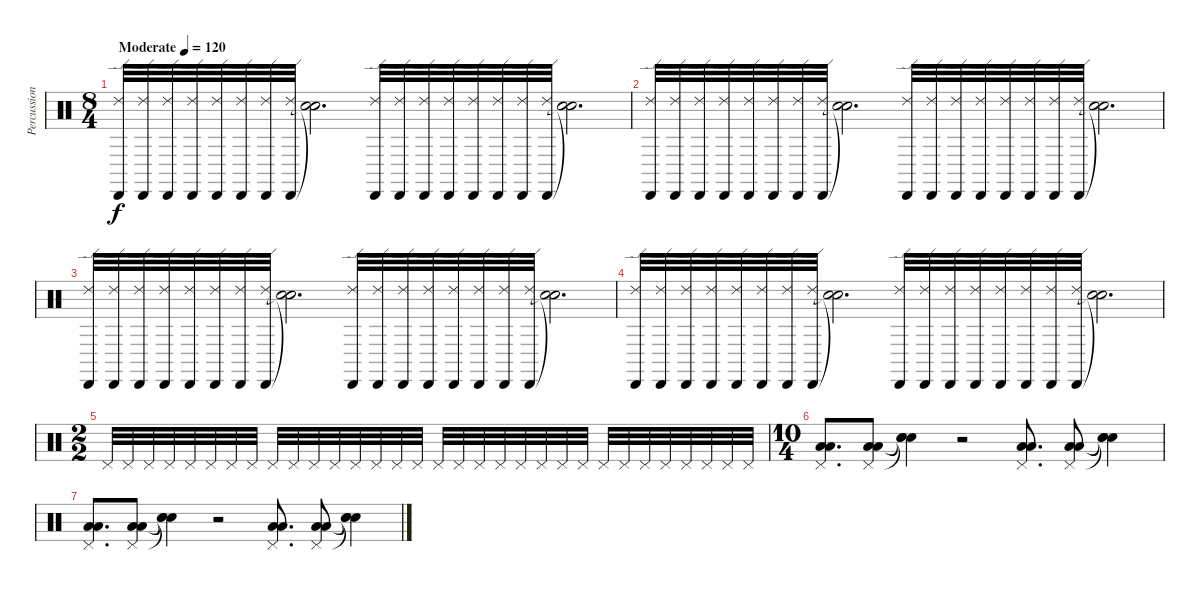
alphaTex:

\track ("Percussion" "Percussion") {instrument percussion}
\staff {score}
\articulation defaults
\ts (8 4)
\tempo (120 "Moderate")
\clef neutral
\ks c
("Cabasa (hit)" "Ride (edge) 2").32{dy f} ("Cabasa (hit)" "Ride (edge) 2").32 ("Cabasa (hit)" "Ride (edge) 2").32 ("Cabasa (hit)" "Ride (edge) 2").32 ("Cabasa (hit)" "Ride (edge) 2").32 ("Cabasa (hit)" "Ride (edge) 2").32 ("Cabasa (hit)" "Ride (edge) 2").32 ("Cabasa (hit)" "Ride (edge) 2").32 ("Snare (hit)"{t} "Snare (hit)"{t}).2{d} ("Cabasa (hit)" "Ride (edge) 2").32 ("Cabasa (hit)" "Ride (edge) 2").32 ("Cabasa (hit)" "Ride (edge) 2").32 ("Cabasa (hit)" "Ride (edge) 2").32 ("Cabasa (hit)" "Ride (edge) 2").32 ("Cabasa (hit)" "Ride (edge) 2").32 ("Cabasa (hit)" "Ride (edge) 2").32 ("Cabasa (hit)" "Ride (edge) 2").32 ("Snare (hit)"{t} "Snare (hit)"{t}).2{d} |
("Cabasa (hit)" "Ride (edge) 2").32 ("Cabasa (hit)" "Ride (edge) 2").32 ("Cabasa (hit)" "Ride (edge) 2").32 ("Cabasa (hit)" "Ride (edge) 2").32 ("Cabasa (hit)" "Ride (edge) 2").32 ("Cabasa (hit)" "Ride (edge) 2").32 ("Cabasa (hit)" "Ride (edge) 2").32 ("Cabasa (hit)" "Ride (edge) 2").32 ("Snare (hit)"{t} "Snare (hit)"{t}).2{d} ("Cabasa (hit)" "Ride (edge) 2").32 ("Cabasa (hit)" "Ride (edge) 2").32 ("Cabasa (hit)" "Ride (edge) 2").32 ("Cabasa (hit)" "Ride (edge) 2").32 ("Cabasa (hit)" "Ride (edge) 2").32 ("Cabasa (hit)" "Ride (edge) 2").32 ("Cabasa (hit)" "Ride (edge) 2").32 ("Cabasa (hit)" "Ride (edge) 2").32 ("Snare (hit)"{t} "Snare (hit)"{t}).2{d} |
("Cabasa (hit)" "Ride (edge) 2").32 ("Cabasa (hit)" "Ride (edge) 2").32 ("Cabasa (hit)" "Ride (edge) 2").32 ("Cabasa (hit)" "Ride (edge) 2").32 ("Cabasa (hit)" "Ride (edge) 2").32 ("Cabasa (hit)" "Ride (edge) 2").32 ("Cabasa (hit)" "Ride (edge) 2").32 ("Cabasa (hit)" "Ride (edge) 2").32 ("Snare (hit)"{t} "Snare (hit)"{t}).2{d} ("Cabasa (hit)" "Ride (edge) 2").32 ("Cabasa (hit)" "Ride (edge) 2").32 ("Cabasa (hit)" "Ride (edge) 2").32 ("Cabasa (hit)" "Ride (edge) 2").32 ("Cabasa (hit)" "Ride (edge) 2").32 ("Cabasa (hit)" "Ride (edge) 2").32 ("Cabasa (hit)" "Ride (edge) 2").32 ("Cabasa (hit)" "Ride (edge) 2").32 ("Snare (hit)"{t} "Snare (hit)"{t}).2{d} |
("Cabasa (hit)" "Ride (edge) 2").32 ("Cabasa (hit)" "Ride (edge) 2").32 ("Cabasa (hit)" "Ride (edge) 2").32 ("Cabasa (hit)" "Ride (edge) 2").32 ("Cabasa (hit)" "Ride (edge) 2").32 ("Cabasa (hit)" "Ride (edge) 2").32 ("Cabasa (hit)" "Ride (edge) 2").32 ("Cabasa (hit)" "Ride (edge) 2").32 ("Snare (hit)"{t} "Snare (hit)"{t}).2{d} ("Cabasa (hit)" "Ride (edge) 2").32 ("Cabasa (hit)" "Ride (edge) 2").32 ("Cabasa (hit)" "Ride (edge) 2").32 ("Cabasa (hit)" "Ride (edge) 2").32 ("Cabasa (hit)" "Ride (edge) 2").32 ("Cabasa (hit)" "Ride (edge) 2").32 ("Cabasa (hit)" "Ride (edge) 2").32 ("Cabasa (hit)" "Ride (edge) 2").32 ("Snare (hit)"{t} "Snare (hit)"{t}).2{d} |
\ts (2 2)
"Pedal Hi-Hat (hit)".32{volume 16} "Pedal Hi-Hat (hit)".32 "Pedal Hi-Hat (hit)".32 "Pedal Hi-Hat (hit)".32 "Pedal Hi-Hat (hit)".32 "Pedal Hi-Hat (hit)".32 "Pedal Hi-Hat (hit)".32 "Pedal Hi-Hat (hit)".32 "Pedal Hi-Hat (hit)".32 "Pedal Hi-Hat (hit)".32 "Pedal Hi-Hat (hit)".32 "Pedal Hi-Hat (hit)".32 "Pedal Hi-Hat (hit)".32 "Pedal Hi-Hat (hit)".32 "Pedal Hi-Hat (hit)".32 "Pedal Hi-Hat (hit)".32 "Pedal Hi-Hat (hit)".32 "Pedal Hi-Hat (hit)".32 "Pedal Hi-Hat (hit)".32 "Pedal Hi-Hat (hit)".32 "Pedal Hi-Hat (hit)".32 "Pedal Hi-Hat (hit)".32 "Pedal Hi-Hat (hit)".32 "Pedal Hi-Hat (hit)".32 "Pedal Hi-Hat (hit)".32 "Pedal Hi-Hat (hit)".32 "Pedal Hi-Hat (hit)".32 "Pedal Hi-Hat (hit)".32 "Pedal Hi-Hat (hit)".32 "Pedal Hi-Hat (hit)".32 "Pedal Hi-Hat (hit)".32 "Pedal Hi-Hat (hit)".32 |
\ts (10 4)
("Low Floor Tom (hit)" "Pedal Hi-Hat (hit)" "Low Tom (hit)").8{d} ("Low Floor Tom (hit)" "Pedal Hi-Hat (hit)" "Low Tom (hit)").8 ("Snare (hit)"{t} "Snare (hit)"{t} "Snare (hit)"{t}).4 r.2 ("Low Floor Tom (hit)" "Pedal Hi-Hat (hit)" "Low Tom (hit)").8{d} ("Low Floor Tom (hit)" "Pedal Hi-Hat (hit)" "Low Tom (hit)").8 ("Snare (hit)"{t} "Snare (hit)"{t} "Snare (hit)"{t}).4 |
("Low Floor Tom (hit)" "Pedal Hi-Hat (hit)" "Low Tom (hit)").8{d} ("Low Floor Tom (hit)" "Pedal Hi-Hat (hit)" "Low Tom (hit)").8 ("Snare (hit)"{t} "Snare (hit)"{t} "Snare (hit)"{t}).4 r.2 ("Low Floor Tom (hit)" "Pedal Hi-Hat (hit)" "Low Tom (hit)").8{d} ("Low Floor Tom (hit)" "Pedal Hi-Hat (hit)" "Low Tom (hit)").8 ("Snare (hit)"{t} "Snare (hit)"{t} "Snare (hit)"{t}).4
